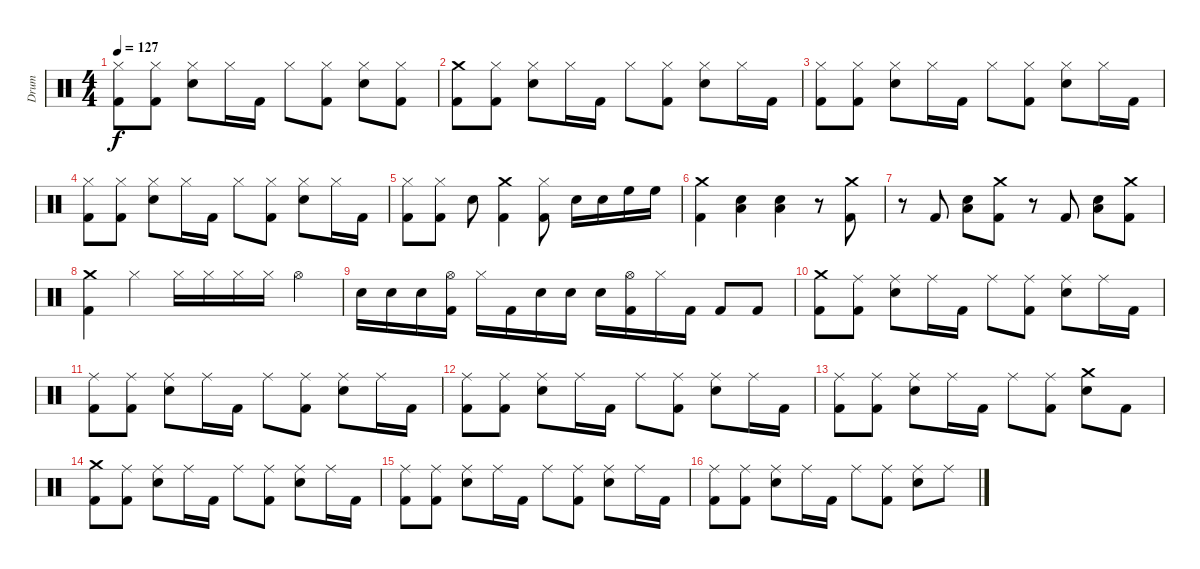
\track ("Drum" "Drum") {instrument percussion}
\staff {score}
\articulation defaults
\ts (4 4)
\tempo 127
\clef neutral
\ks c
("Kick (hit) 2" "Hi-Hat (closed)").8{dy f} ("Hi-Hat (closed)" "Kick (hit) 2").8 ("Hi-Hat (closed)" "Snare (hit) 2").8 "Hi-Hat (closed)".16 "Kick (hit) 2".16 "Hi-Hat (closed)".8 ("Hi-Hat (closed)" "Kick (hit) 2").8 ("Hi-Hat (closed)" "Snare (hit) 2").8 ("Hi-Hat (closed)" "Kick (hit) 2").8 |
("Crash medium (hit)" "Kick (hit) 2").8 ("Hi-Hat (closed)" "Kick (hit) 2").8 ("Hi-Hat (closed)" "Snare (hit) 2").8 "Hi-Hat (closed)".16 "Kick (hit) 2".16 "Hi-Hat (closed)".8 ("Hi-Hat (closed)" "Kick (hit) 2").8 ("Hi-Hat (closed)" "Snare (hit) 2").8 "Hi-Hat (closed)".16 "Kick (hit) 2".16 |
("Kick (hit) 2" "Hi-Hat (closed)").8 ("Hi-Hat (closed)" "Kick (hit) 2").8 ("Hi-Hat (closed)" "Snare (hit) 2").8 "Hi-Hat (closed)".16 "Kick (hit) 2".16 "Hi-Hat (closed)".8 ("Hi-Hat (closed)" "Kick (hit) 2").8 ("Hi-Hat (closed)" "Snare (hit) 2").8 "Hi-Hat (closed)".16 "Kick (hit) 2".16 |
("Kick (hit) 2" "Hi-Hat (closed)").8 ("Hi-Hat (closed)" "Kick (hit) 2").8 ("Hi-Hat (closed)" "Snare (hit) 2").8 "Hi-Hat (closed)".16 "Kick (hit) 2".16 "Hi-Hat (closed)".8 ("Hi-Hat (closed)" "Kick (hit) 2").8 ("Hi-Hat (closed)" "Snare (hit) 2").8 "Hi-Hat (closed)".16 "Kick (hit) 2".16 |
("Hi-Hat (closed)" "Kick (hit) 2").8 ("Hi-Hat (closed)" "Kick (hit) 2").8 "Snare (hit) 2".8 ("Crash medium (hit)" "Kick (hit) 2").4 ("Hi-Hat (closed)" "Kick (hit) 2").8 "Snare (hit) 2".16 "Snare (hit) 2".16 "High Floor Tom (hit)".16 "High Floor Tom (hit)".16 |
("Crash medium (hit)" "Kick (hit) 2").4 ("Snare (hit) 2" "Low Floor Tom (hit)").4 ("Low Floor Tom (hit)" "Snare (hit) 2").4 r.8 ("Crash medium (hit)" "Kick (hit) 2").8 |
r.8 "Kick (hit) 2".8 ("Snare (hit) 2" "Low Floor Tom (hit)").8 ("Kick (hit) 2" "Crash medium (hit)").8 r.8 "Kick (hit) 2".8 ("Snare (hit) 2" "Low Floor Tom (hit)").8 ("Kick (hit) 2" "Crash medium (hit)").8 |
("Crash medium (hit)" "Kick (hit) 2").4 "Hi-Hat (closed)".4 "Hi-Hat (closed)".16 "Hi-Hat (closed)".16 "Hi-Hat (closed)".16 "Hi-Hat (closed)".16 "Hi-Hat (open)".4 |
"Snare (hit) 2".16 "Snare (hit) 2".16 "Snare (hit) 2".16 ("Hi-Hat (open)" "Kick (hit) 2").16 "Hi-Hat (closed)".16 "Kick (hit) 2".16 "Snare (hit) 2".16 "Snare (hit) 2".16 "Snare (hit) 2".16 ("Hi-Hat (open)" "Kick (hit) 2").16 "Hi-Hat (closed)".16 "Kick (hit) 2".16 "Kick (hit) 2".8 "Kick (hit) 2".8 |
("Crash medium (hit)" "Kick (hit) 2").8 ("Ride (middle)" "Kick (hit) 2").8 ("Ride (middle)" "Snare (hit) 2").8 "Ride (middle)".16 "Kick (hit) 2".16 "Ride (middle)".8 ("Ride (middle)" "Kick (hit) 2").8 ("Ride (middle)" "Snare (hit) 2").8 "Ride (middle)".16 "Kick (hit) 2".16 |
("Kick (hit) 2" "Ride (middle)").8 ("Ride (middle)" "Kick (hit) 2").8 ("Ride (middle)" "Snare (hit) 2").8 "Ride (middle)".16 "Kick (hit) 2".16 "Ride (middle)".8 ("Ride (middle)" "Kick (hit) 2").8 ("Ride (middle)" "Snare (hit) 2").8 "Ride (middle)".16 "Kick (hit) 2".16 |
("Kick (hit) 2" "Ride (middle)").8 ("Ride (middle)" "Kick (hit) 2").8 ("Ride (middle)" "Snare (hit) 2").8 "Ride (middle)".16 "Kick (hit) 2".16 "Ride (middle)".8 ("Ride (middle)" "Kick (hit) 2").8 ("Ride (middle)" "Snare (hit) 2").8 "Ride (middle)".16 "Kick (hit) 2".16 |
("Kick (hit) 2" "Ride (middle)").8 ("Ride (middle)" "Kick (hit) 2").8 ("Ride (middle)" "Snare (hit) 2").8 "Ride (middle)".16 "Kick (hit) 2".16 "Ride (middle)".8 ("Ride (middle)" "Kick (hit) 2").8 ("Snare (hit) 2" "Crash medium (hit)").8 "Kick (hit) 2".8 |
("Crash medium (hit)" "Kick (hit) 2").8 ("Ride (middle)" "Kick (hit) 2").8 ("Ride (middle)" "Snare (hit) 2").8 "Ride (middle)".16 "Kick (hit) 2".16 "Ride (middle)".8 ("Ride (middle)" "Kick (hit) 2").8 ("Ride (middle)" "Snare (hit) 2").8 "Ride (middle)".16 "Kick (hit) 2".16 |
("Kick (hit) 2" "Ride (middle)").8 ("Ride (middle)" "Kick (hit) 2").8 ("Ride (middle)" "Snare (hit) 2").8 "Ride (middle)".16 "Kick (hit) 2".16 "Ride (middle)".8 ("Ride (middle)" "Kick (hit) 2").8 ("Ride (middle)" "Snare (hit) 2").8 "Ride (middle)".16 "Kick (hit) 2".16 |
("Kick (hit) 2" "Ride (middle)").8 ("Ride (middle)" "Kick (hit) 2").8 ("Ride (middle)" "Snare (hit) 2").8 "Ride (middle)".16 "Kick (hit) 2".16 "Ride (middle)".8 ("Ride (middle)" "Kick (hit) 2").8 ("Ride (middle)" "Snare (hit) 2").8 "Ride (middle)".8
